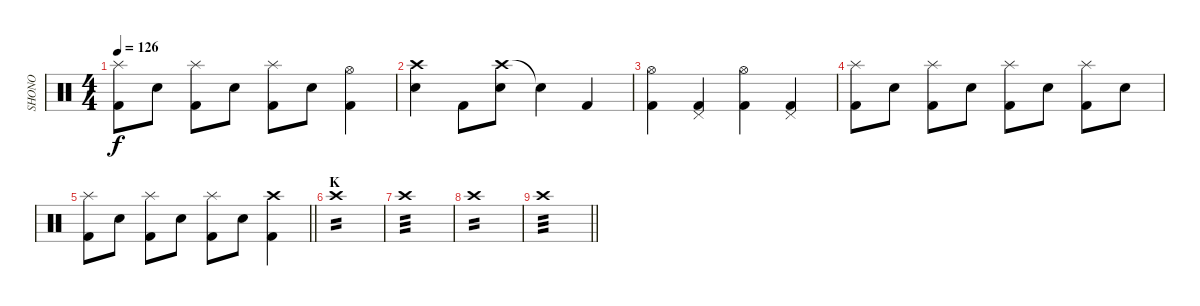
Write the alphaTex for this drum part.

\track ("SHONO" "SHONO") {instrument percussion}
\staff {score}
\articulation defaults
\ts (4 4)
\tempo 126
\clef neutral
\ks c
("Splash (hit)" "Kick (hit) 2").8{dy f} "Snare (hit) 2".8 ("Splash (hit)" "Kick (hit) 2").8 "Snare (hit) 2".8 ("Splash (hit)" "Kick (hit) 2").8 "Snare (hit) 2".8 ("Hi-Hat (open)" "Kick (hit) 2").4 |
("Crash high (hit)" "Snare (hit) 2").4 "Kick (hit) 2".8 ("Crash high (hit)" "Snare (hit) 2").8 "Snare (hit)"{t}.4 "Kick (hit) 2".4 |
("Hi-Hat (open)" "Kick (hit) 2").4 ("Pedal Hi-Hat (hit)" "Kick (hit) 2").4 ("Hi-Hat (open)" "Kick (hit) 2").4 ("Pedal Hi-Hat (hit)" "Kick (hit) 2").4 |
("Splash (hit)" "Kick (hit) 2").8 "Snare (hit) 2".8 ("Splash (hit)" "Kick (hit) 2").8 "Snare (hit) 2".8 ("Splash (hit)" "Kick (hit) 2").8 "Snare (hit) 2".8 ("Splash (hit)" "Kick (hit) 2").8 "Snare (hit) 2".8 |
\barLineRight lightlight
("Splash (hit)" "Kick (hit) 2").8 "Snare (hit) 2".8 ("Splash (hit)" "Kick (hit) 2").8 "Snare (hit) 2".8 ("Splash (hit)" "Kick (hit) 2").8 "Snare (hit) 2".8 ("Crash high (hit)" "Kick (hit) 2").4 |
\section ("" "K")
"Crash high (hit)".1{tp 2} |
"Crash high (hit)".1{tp 3} |
"Crash high (hit)".1{tp 2} |
\barLineRight lightlight "Crash high (hit)".1{tp 3}
